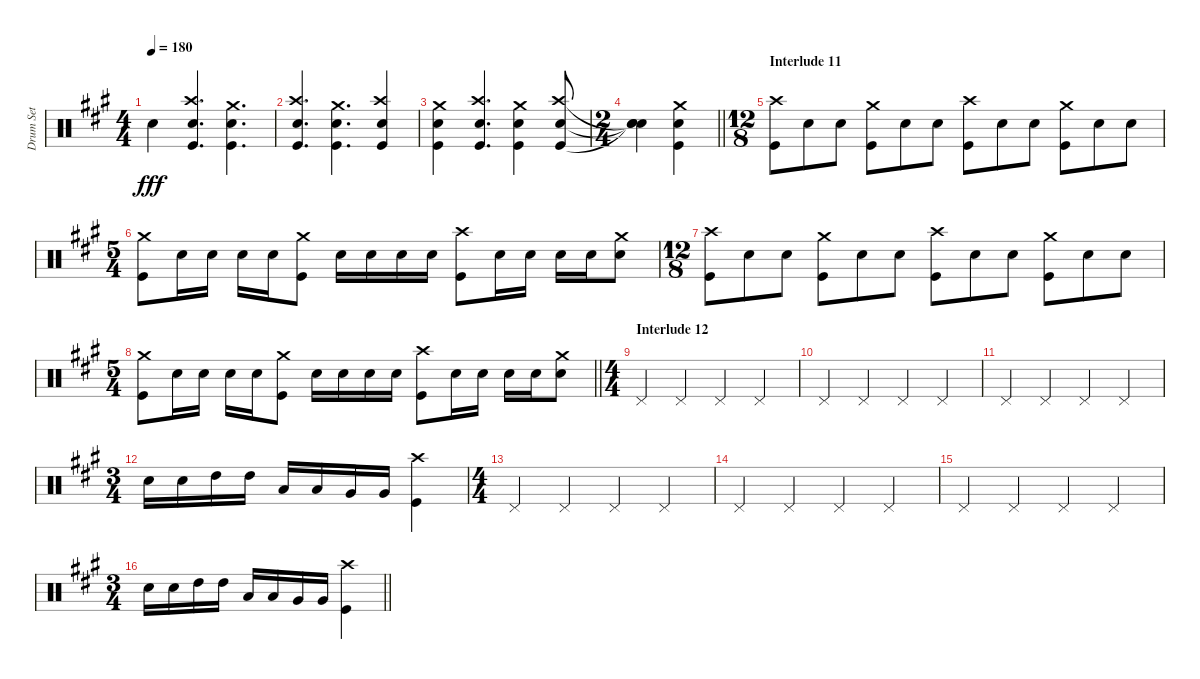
\track ("Drum Set" "Drum Set") {instrument percussion}
\staff {score}
\articulation defaults
\ts (4 4)
\tempo 180
\clef neutral
\ks a "Snare (hit)"{t}.4{dy fff}
("Kick (hit)" "Crash high (hit)" "Electric Snare (hit)").4{d} ("Kick (hit)" "Crash medium (hit)" "Electric Snare (hit)").4{d} |
("Kick (hit)" "Crash high (hit)" "Electric Snare (hit)").4{d} ("Kick (hit)" "Crash medium (hit)" "Electric Snare (hit)").4{d} ("Kick (hit)" "Crash high (hit)" "Electric Snare (hit)").4 |
("Kick (hit)" "Crash medium (hit)" "Electric Snare (hit)").4 ("Kick (hit)" "Crash high (hit)" "Electric Snare (hit)").4{d} ("Kick (hit)" "Crash medium (hit)" "Electric Snare (hit)").4 ("Kick (hit)" "Crash high (hit)" "Electric Snare (hit)").8 |
\ts (2 4)
\barLineRight lightlight
("Snare (hit)"{t} "Snare (hit)"{t} "Snare (hit)"{t}).4 ("Kick (hit)" "Crash medium (hit)" "Electric Snare (hit)").4 |
\ts (12 8)
\section ("" "Interlude 11")
("Crash high (hit)" "Kick (hit)").8 "Electric Snare (hit)".8 "Electric Snare (hit)".8 ("Crash medium (hit)" "Kick (hit)").8 "Electric Snare (hit)".8 "Electric Snare (hit)".8 ("Crash high (hit)" "Kick (hit)").8 "Electric Snare (hit)".8 "Electric Snare (hit)".8 ("Crash medium (hit)" "Kick (hit)").8 "Electric Snare (hit)".8 "Electric Snare (hit)".8 |
\ts (5 4)
("Kick (hit)" "Crash medium (hit)").8 "Electric Snare (hit)".16 "Electric Snare (hit)".16 "Electric Snare (hit)".16 "Electric Snare (hit)".16 ("Crash medium (hit)" "Kick (hit)").8 "Electric Snare (hit)".16 "Electric Snare (hit)".16 "Electric Snare (hit)".16 "Electric Snare (hit)".16 ("Crash high (hit)" "Kick (hit)").8 "Electric Snare (hit)".16 "Electric Snare (hit)".16 "Electric Snare (hit)".16 "Electric Snare (hit)".16 ("Crash medium (hit)" "Electric Snare (hit)").8 |
\ts (12 8)
("Crash high (hit)" "Kick (hit)").8 "Electric Snare (hit)".8 "Electric Snare (hit)".8 ("Crash medium (hit)" "Kick (hit)").8 "Electric Snare (hit)".8 "Electric Snare (hit)".8 ("Crash high (hit)" "Kick (hit)").8 "Electric Snare (hit)".8 "Electric Snare (hit)".8 ("Crash medium (hit)" "Kick (hit)").8 "Electric Snare (hit)".8 "Electric Snare (hit)".8 |
\ts (5 4)
\barLineRight lightlight
("Kick (hit)" "Crash medium (hit)").8 "Electric Snare (hit)".16 "Electric Snare (hit)".16 "Electric Snare (hit)".16 "Electric Snare (hit)".16 ("Crash medium (hit)" "Kick (hit)").8 "Electric Snare (hit)".16 "Electric Snare (hit)".16 "Electric Snare (hit)".16 "Electric Snare (hit)".16 ("Crash high (hit)" "Kick (hit)").8 "Electric Snare (hit)".16 "Electric Snare (hit)".16 "Electric Snare (hit)".16 "Electric Snare (hit)".16 ("Crash medium (hit)" "Electric Snare (hit)").8 |
\ts (4 4)
\section ("" "Interlude 12")
"Pedal Hi-Hat (hit)".4 "Pedal Hi-Hat (hit)".4 "Pedal Hi-Hat (hit)".4 "Pedal Hi-Hat (hit)".4 |
"Pedal Hi-Hat (hit)".4 "Pedal Hi-Hat (hit)".4 "Pedal Hi-Hat (hit)".4 "Pedal Hi-Hat (hit)".4 |
"Pedal Hi-Hat (hit)".4 "Pedal Hi-Hat (hit)".4 "Pedal Hi-Hat (hit)".4 "Pedal Hi-Hat (hit)".4 |
\ts (3 4)
"Electric Snare (hit)".16 "Electric Snare (hit)".16 "High Tom (hit)".16 "High Tom (hit)".16 "Low Tom (hit)".16 "Low Tom (hit)".16 "Very Low Tom (hit)".16 "Very Low Tom (hit)".16 ("Crash high (hit)" "Kick (hit)").4 |
\ts (4 4)
"Pedal Hi-Hat (hit)".4 "Pedal Hi-Hat (hit)".4 "Pedal Hi-Hat (hit)".4 "Pedal Hi-Hat (hit)".4 |
"Pedal Hi-Hat (hit)".4 "Pedal Hi-Hat (hit)".4 "Pedal Hi-Hat (hit)".4 "Pedal Hi-Hat (hit)".4 |
"Pedal Hi-Hat (hit)".4 "Pedal Hi-Hat (hit)".4 "Pedal Hi-Hat (hit)".4 "Pedal Hi-Hat (hit)".4 |
\ts (3 4)
\barLineRight lightlight "Electric Snare (hit)".16 "Electric Snare (hit)".16 "High Tom (hit)".16 "High Tom (hit)".16 "Low Tom (hit)".16 "Low Tom (hit)".16 "Very Low Tom (hit)".16 "Very Low Tom (hit)".16
("Crash high (hit)" "Kick (hit)").4
